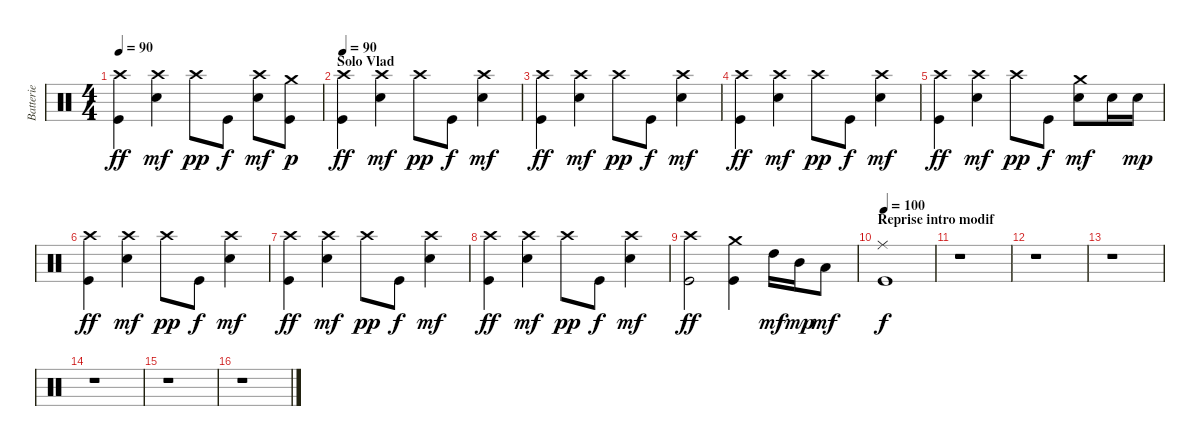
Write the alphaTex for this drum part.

\track ("Batterie" "Batterie") {instrument percussion}
\staff {score}
\articulation defaults
\ts (4 4)
\tempo 90
\clef neutral
\ks c
("Crash high (hit)" "Kick (hit)").4{dy ff} ("Crash high (hit)" "Electric Snare (hit)").4{dy mf} "Crash high (hit)".8{dy pp} "Kick (hit)".8{dy f} ("Crash high (hit)" "Electric Snare (hit)").8{dy mf} ("Crash medium (hit)" "Kick (hit)").8{dy p} |
\section ("" "Solo Vlad")
\tempo 90
("Crash high (hit)" "Kick (hit)").4{dy ff} ("Crash high (hit)" "Electric Snare (hit)").4{dy mf} "Crash high (hit)".8{dy pp} "Kick (hit)".8{dy f} ("Crash high (hit)" "Electric Snare (hit)").4{dy mf} |
("Crash high (hit)" "Kick (hit)").4{dy ff} ("Crash high (hit)" "Electric Snare (hit)").4{dy mf} "Crash high (hit)".8{dy pp} "Kick (hit)".8{dy f} ("Crash high (hit)" "Electric Snare (hit)").4{dy mf} |
("Crash high (hit)" "Kick (hit)").4{dy ff} ("Crash high (hit)" "Electric Snare (hit)").4{dy mf} "Crash high (hit)".8{dy pp} "Kick (hit)".8{dy f} ("Crash high (hit)" "Electric Snare (hit)").4{dy mf} |
("Crash high (hit)" "Kick (hit)").4{dy ff} ("Crash high (hit)" "Electric Snare (hit)").4{dy mf} "Crash high (hit)".8{dy pp} "Kick (hit)".8{dy f} ("Crash medium (hit)" "Electric Snare (hit)").8{dy mf} "Electric Snare (hit)".16 "Electric Snare (hit)".16{dy mp} |
("Crash high (hit)" "Kick (hit)").4{dy ff} ("Crash high (hit)" "Electric Snare (hit)").4{dy mf} "Crash high (hit)".8{dy pp} "Kick (hit)".8{dy f} ("Crash high (hit)" "Electric Snare (hit)").4{dy mf} |
("Crash high (hit)" "Kick (hit)").4{dy ff} ("Crash high (hit)" "Electric Snare (hit)").4{dy mf} "Crash high (hit)".8{dy pp} "Kick (hit)".8{dy f} ("Crash high (hit)" "Electric Snare (hit)").4{dy mf} |
("Crash high (hit)" "Kick (hit)").4{dy ff} ("Crash high (hit)" "Electric Snare (hit)").4{dy mf} "Crash high (hit)".8{dy pp} "Kick (hit)".8{dy f} ("Crash high (hit)" "Electric Snare (hit)").4{dy mf} |
("Crash high (hit)" "Kick (hit)").2{dy ff} ("Crash medium (hit)" "Kick (hit)").4 "High Tom (hit)".16{dy mf} "Mid Tom (hit)".16{dy mp} "Low Tom (hit)".8{dy mf} |
\section ("" "Reprise intro modif")
\tempo 100
("Ride (middle)" "Kick (hit)").1{dy f} |
r.1 |
r.1 |
r.1 |
r.1 |
r.1 |
r.1
